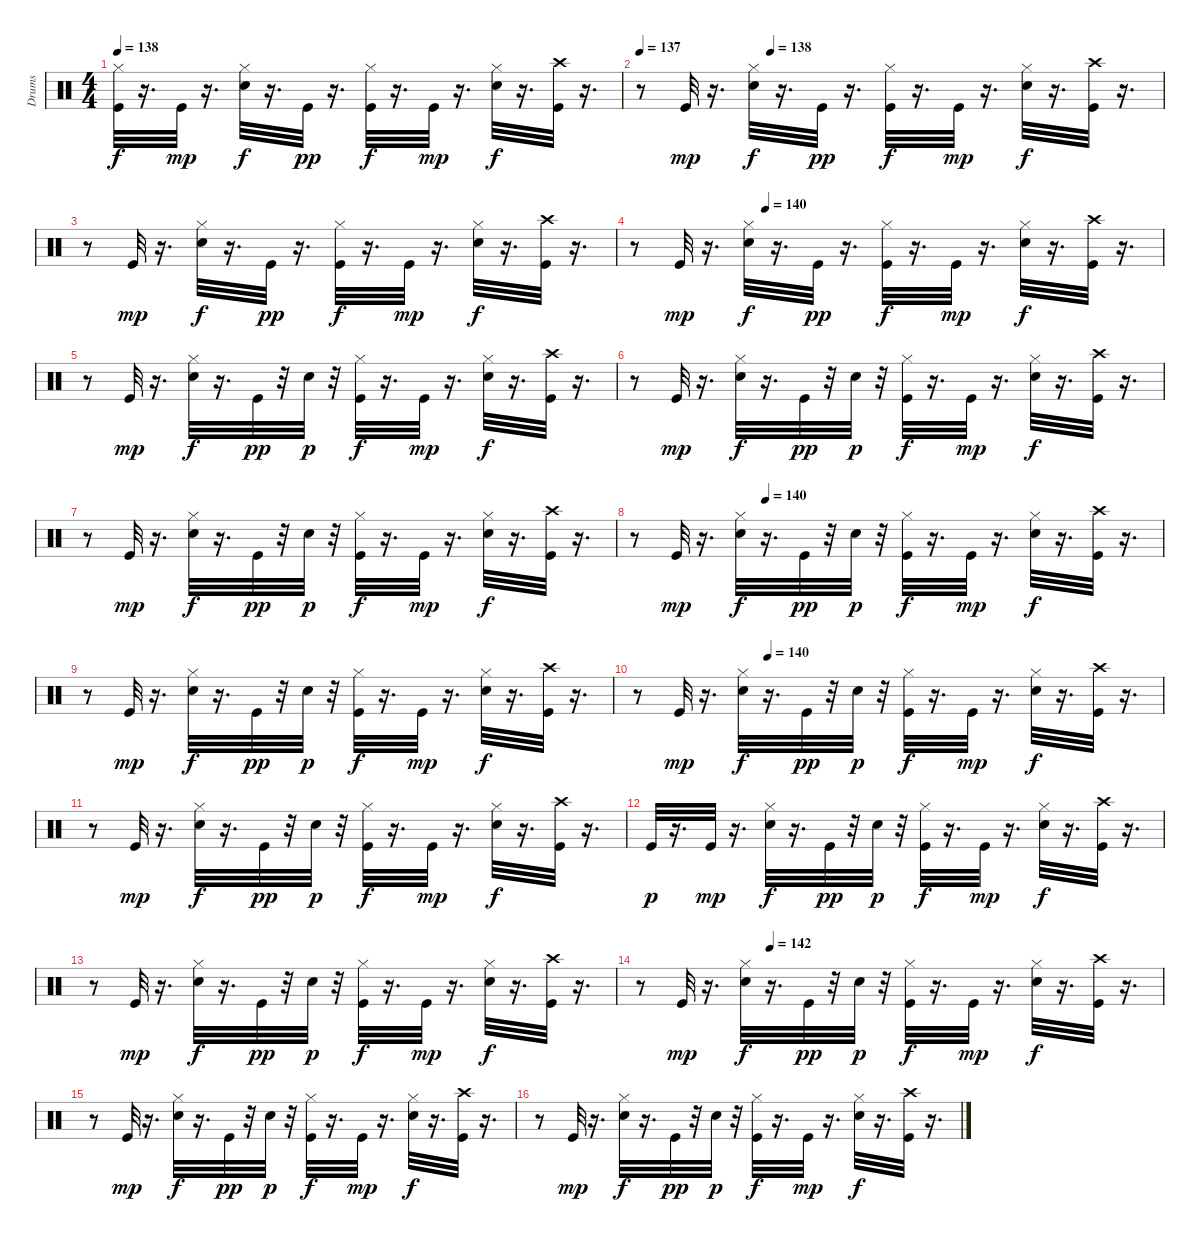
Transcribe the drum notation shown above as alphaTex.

\track ("Drums" "Drums") {instrument percussion}
\staff {score}
\articulation defaults
\ts (4 4)
\tempo 138
\clef neutral
\ks c
("Hi-Hat (closed)" "Kick (hit)").32{dy f} r.16{d} "Kick (hit)".32{dy mp} r.16{d} ("Hi-Hat (closed)" "Snare (hit) 2").32{dy f} r.16{d} "Kick (hit)".32{dy pp} r.16{d} ("Hi-Hat (closed)" "Kick (hit)").32{dy f} r.16{d} "Kick (hit)".32{dy mp} r.16{d} ("Hi-Hat (closed)" "Snare (hit) 2").32{dy f} r.16{d} ("Crash high (hit)" "Kick (hit)").32 r.16{d} |
\tempo 137
\tempo (138 0.25)
r.8 "Kick (hit)".32{dy mp} r.16{d} ("Hi-Hat (closed)" "Snare (hit) 2").32{dy f} r.16{d} "Kick (hit)".32{dy pp} r.16{d} ("Hi-Hat (closed)" "Kick (hit)").32{dy f} r.16{d} "Kick (hit)".32{dy mp} r.16{d} ("Hi-Hat (closed)" "Snare (hit) 2").32{dy f} r.16{d} ("Crash high (hit)" "Kick (hit)").32 r.16{d} |
r.8 "Kick (hit)".32{dy mp} r.16{d} ("Hi-Hat (closed)" "Snare (hit) 2").32{dy f} r.16{d} "Kick (hit)".32{dy pp} r.16{d} ("Hi-Hat (closed)" "Kick (hit)").32{dy f} r.16{d} "Kick (hit)".32{dy mp} r.16{d} ("Hi-Hat (closed)" "Snare (hit) 2").32{dy f} r.16{d} ("Crash high (hit)" "Kick (hit)").32 r.16{d} |
\tempo (140 0.25)
r.8 "Kick (hit)".32{dy mp} r.16{d} ("Hi-Hat (closed)" "Snare (hit) 2").32{dy f} r.16{d} "Kick (hit)".32{dy pp} r.16{d} ("Hi-Hat (closed)" "Kick (hit)").32{dy f} r.16{d} "Kick (hit)".32{dy mp} r.16{d} ("Hi-Hat (closed)" "Snare (hit) 2").32{dy f} r.16{d} ("Crash high (hit)" "Kick (hit)").32 r.16{d} |
r.8 "Kick (hit)".32{dy mp} r.16{d} ("Hi-Hat (closed)" "Snare (hit) 2").32{dy f} r.16{d} "Kick (hit)".32{dy pp} r.32 "Snare (hit) 2".32{dy p} r.32 ("Hi-Hat (closed)" "Kick (hit)").32{dy f} r.16{d} "Kick (hit)".32{dy mp} r.16{d} ("Hi-Hat (closed)" "Snare (hit) 2").32{dy f} r.16{d} ("Crash high (hit)" "Kick (hit)").32 r.16{d} |
r.8 "Kick (hit)".32{dy mp} r.16{d} ("Hi-Hat (closed)" "Snare (hit) 2").32{dy f} r.16{d} "Kick (hit)".32{dy pp} r.32 "Snare (hit) 2".32{dy p} r.32 ("Hi-Hat (closed)" "Kick (hit)").32{dy f} r.16{d} "Kick (hit)".32{dy mp} r.16{d} ("Hi-Hat (closed)" "Snare (hit) 2").32{dy f} r.16{d} ("Crash high (hit)" "Kick (hit)").32 r.16{d} |
r.8 "Kick (hit)".32{dy mp} r.16{d} ("Hi-Hat (closed)" "Snare (hit) 2").32{dy f} r.16{d} "Kick (hit)".32{dy pp} r.32 "Snare (hit) 2".32{dy p} r.32 ("Hi-Hat (closed)" "Kick (hit)").32{dy f} r.16{d} "Kick (hit)".32{dy mp} r.16{d} ("Hi-Hat (closed)" "Snare (hit) 2").32{dy f} r.16{d} ("Crash high (hit)" "Kick (hit)").32 r.16{d} |
\tempo (140 0.25)
r.8 "Kick (hit)".32{dy mp} r.16{d} ("Hi-Hat (closed)" "Snare (hit) 2").32{dy f} r.16{d} "Kick (hit)".32{dy pp} r.32 "Snare (hit) 2".32{dy p} r.32 ("Hi-Hat (closed)" "Kick (hit)").32{dy f} r.16{d} "Kick (hit)".32{dy mp} r.16{d} ("Hi-Hat (closed)" "Snare (hit) 2").32{dy f} r.16{d} ("Crash high (hit)" "Kick (hit)").32 r.16{d} |
r.8 "Kick (hit)".32{dy mp} r.16{d} ("Hi-Hat (closed)" "Snare (hit) 2").32{dy f} r.16{d} "Kick (hit)".32{dy pp} r.32 "Snare (hit) 2".32{dy p} r.32 ("Hi-Hat (closed)" "Kick (hit)").32{dy f} r.16{d} "Kick (hit)".32{dy mp} r.16{d} ("Hi-Hat (closed)" "Snare (hit) 2").32{dy f} r.16{d} ("Crash high (hit)" "Kick (hit)").32 r.16{d} |
\tempo (140 0.25)
r.8 "Kick (hit)".32{dy mp} r.16{d} ("Hi-Hat (closed)" "Snare (hit) 2").32{dy f} r.16{d} "Kick (hit)".32{dy pp} r.32 "Snare (hit) 2".32{dy p} r.32 ("Hi-Hat (closed)" "Kick (hit)").32{dy f} r.16{d} "Kick (hit)".32{dy mp} r.16{d} ("Hi-Hat (closed)" "Snare (hit) 2").32{dy f} r.16{d} ("Crash high (hit)" "Kick (hit)").32 r.16{d} |
r.8 "Kick (hit)".32{dy mp} r.16{d} ("Hi-Hat (closed)" "Snare (hit) 2").32{dy f} r.16{d} "Kick (hit)".32{dy pp} r.32 "Snare (hit) 2".32{dy p} r.32 ("Hi-Hat (closed)" "Kick (hit)").32{dy f} r.16{d} "Kick (hit)".32{dy mp} r.16{d} ("Hi-Hat (closed)" "Snare (hit) 2").32{dy f} r.16{d} ("Crash high (hit)" "Kick (hit)").32 r.16{d} |
"Kick (hit)".32{dy p} r.16{d} "Kick (hit)".32{dy mp} r.16{d} ("Hi-Hat (closed)" "Snare (hit) 2").32{dy f} r.16{d} "Kick (hit)".32{dy pp} r.32 "Snare (hit) 2".32{dy p} r.32 ("Hi-Hat (closed)" "Kick (hit)").32{dy f} r.16{d} "Kick (hit)".32{dy mp} r.16{d} ("Hi-Hat (closed)" "Snare (hit) 2").32{dy f} r.16{d} ("Crash high (hit)" "Kick (hit)").32 r.16{d} |
r.8 "Kick (hit)".32{dy mp} r.16{d} ("Hi-Hat (closed)" "Snare (hit) 2").32{dy f} r.16{d} "Kick (hit)".32{dy pp} r.32 "Snare (hit) 2".32{dy p} r.32 ("Hi-Hat (closed)" "Kick (hit)").32{dy f} r.16{d} "Kick (hit)".32{dy mp} r.16{d} ("Hi-Hat (closed)" "Snare (hit) 2").32{dy f} r.16{d} ("Crash high (hit)" "Kick (hit)").32 r.16{d} |
\tempo (142 0.25)
r.8 "Kick (hit)".32{dy mp} r.16{d} ("Hi-Hat (closed)" "Snare (hit) 2").32{dy f} r.16{d} "Kick (hit)".32{dy pp} r.32 "Snare (hit) 2".32{dy p} r.32 ("Hi-Hat (closed)" "Kick (hit)").32{dy f} r.16{d} "Kick (hit)".32{dy mp} r.16{d} ("Hi-Hat (closed)" "Snare (hit) 2").32{dy f} r.16{d} ("Crash high (hit)" "Kick (hit)").32 r.16{d} |
r.8 "Kick (hit)".32{dy mp} r.16{d} ("Hi-Hat (closed)" "Snare (hit) 2").32{dy f} r.16{d} "Kick (hit)".32{dy pp} r.32 "Snare (hit) 2".32{dy p} r.32 ("Hi-Hat (closed)" "Kick (hit)").32{dy f} r.16{d} "Kick (hit)".32{dy mp} r.16{d} ("Hi-Hat (closed)" "Snare (hit) 2").32{dy f} r.16{d} ("Crash high (hit)" "Kick (hit)").32 r.16{d} |
r.8 "Kick (hit)".32{dy mp} r.16{d} ("Hi-Hat (closed)" "Snare (hit) 2").32{dy f} r.16{d} "Kick (hit)".32{dy pp} r.32 "Snare (hit) 2".32{dy p} r.32 ("Hi-Hat (closed)" "Kick (hit)").32{dy f} r.16{d} "Kick (hit)".32{dy mp} r.16{d} ("Hi-Hat (closed)" "Snare (hit) 2").32{dy f} r.16{d} ("Crash high (hit)" "Kick (hit)").32 r.16{d}
